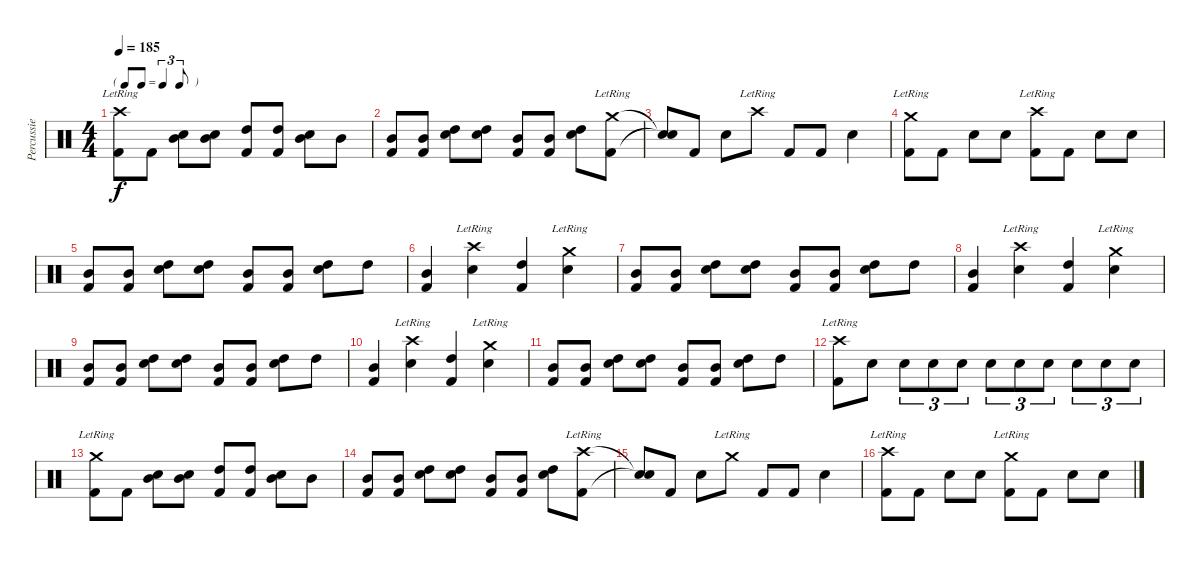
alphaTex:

\track ("Percussie" "Percussie") {instrument percussion}
\staff {score}
\articulation defaults
\ts (4 4)
\tf triplet8th
\tempo 185
\clef neutral
\ks c
("Crash high (hit)"{lr} "Kick (hit) 2").8{dy f} "Kick (hit) 2".8 ("Mid Tom (hit)" "Snare (hit) 2").8 ("Mid Tom (hit)" "Snare (hit) 2").8 ("High Tom (hit)" "Kick (hit) 2").8 ("High Tom (hit)" "Kick (hit) 2").8 ("Mid Tom (hit)" "Snare (hit) 2").8 "Mid Tom (hit)".8 |
("Mid Tom (hit)" "Kick (hit) 2").8 ("Mid Tom (hit)" "Kick (hit) 2").8 ("High Tom (hit)" "Snare (hit) 2").8 ("High Tom (hit)" "Snare (hit) 2").8 ("Mid Tom (hit)" "Kick (hit) 2").8 ("Mid Tom (hit)" "Kick (hit) 2").8 ("High Tom (hit)" "Snare (hit) 2").8 ("Crash medium (hit)"{lr} "Kick (hit) 2").8 |
("Snare (hit)"{t} "Snare (hit)"{t}).8 "Kick (hit) 2".8 "Snare (hit) 2".8 "Crash high (hit)"{lr}.8 "Kick (hit) 2".8 "Kick (hit) 2".8 "Snare (hit) 2".4 |
("Crash medium (hit)"{lr} "Kick (hit) 2").8 "Kick (hit) 2".8 "Snare (hit) 2".8 "Snare (hit) 2".8 ("Crash high (hit)"{lr} "Kick (hit) 2").8 "Kick (hit) 2".8 "Snare (hit) 2".8 "Snare (hit) 2".8 |
("Mid Tom (hit)" "Kick (hit) 2").8 ("Mid Tom (hit)" "Kick (hit) 2").8 ("High Tom (hit)" "Snare (hit) 2").8 ("High Tom (hit)" "Snare (hit) 2").8 ("Mid Tom (hit)" "Kick (hit) 2").8 ("Mid Tom (hit)" "Kick (hit) 2").8 ("High Tom (hit)" "Snare (hit) 2").8 "High Tom (hit)".8 |
("Mid Tom (hit)" "Kick (hit) 2").4 ("Crash high (hit)"{lr} "Snare (hit) 2").4 ("High Tom (hit)" "Kick (hit) 2").4 ("Crash medium (hit)"{lr} "Snare (hit) 2").4 |
("Mid Tom (hit)" "Kick (hit) 2").8 ("Mid Tom (hit)" "Kick (hit) 2").8 ("High Tom (hit)" "Snare (hit) 2").8 ("High Tom (hit)" "Snare (hit) 2").8 ("Mid Tom (hit)" "Kick (hit) 2").8 ("Mid Tom (hit)" "Kick (hit) 2").8 ("High Tom (hit)" "Snare (hit) 2").8 "High Tom (hit)".8 |
("Mid Tom (hit)" "Kick (hit) 2").4 ("Crash high (hit)"{lr} "Snare (hit) 2").4 ("High Tom (hit)" "Kick (hit) 2").4 ("Crash medium (hit)"{lr} "Snare (hit) 2").4 |
("Mid Tom (hit)" "Kick (hit) 2").8 ("Mid Tom (hit)" "Kick (hit) 2").8 ("High Tom (hit)" "Snare (hit) 2").8 ("High Tom (hit)" "Snare (hit) 2").8 ("Mid Tom (hit)" "Kick (hit) 2").8 ("Mid Tom (hit)" "Kick (hit) 2").8 ("High Tom (hit)" "Snare (hit) 2").8 "High Tom (hit)".8 |
("Mid Tom (hit)" "Kick (hit) 2").4 ("Crash high (hit)"{lr} "Snare (hit) 2").4 ("High Tom (hit)" "Kick (hit) 2").4 ("Crash medium (hit)"{lr} "Snare (hit) 2").4 |
("Mid Tom (hit)" "Kick (hit) 2").8 ("Mid Tom (hit)" "Kick (hit) 2").8 ("High Tom (hit)" "Snare (hit) 2").8 ("High Tom (hit)" "Snare (hit) 2").8 ("Mid Tom (hit)" "Kick (hit) 2").8 ("Mid Tom (hit)" "Kick (hit) 2").8 ("High Tom (hit)" "Snare (hit) 2").8 "High Tom (hit)".8 |
("Crash high (hit)"{lr} "Kick (hit) 2").8 "Snare (hit) 2".8 "Snare (hit) 2".8{tu (3 2)} "Snare (hit) 2".8{tu (3 2)} "Snare (hit) 2".8{tu (3 2)} "Snare (hit) 2".8{tu (3 2)} "Snare (hit) 2".8{tu (3 2)} "Snare (hit) 2".8{tu (3 2)} "Snare (hit) 2".8{tu (3 2)} "Snare (hit) 2".8{tu (3 2)} "Snare (hit) 2".8{tu (3 2)} |
("Crash medium (hit)"{lr} "Kick (hit) 2").8 "Kick (hit) 2".8 ("Mid Tom (hit)" "Snare (hit) 2").8 ("Mid Tom (hit)" "Snare (hit) 2").8 ("High Tom (hit)" "Kick (hit) 2").8 ("High Tom (hit)" "Kick (hit) 2").8 ("Mid Tom (hit)" "Snare (hit) 2").8 "Mid Tom (hit)".8 |
("Mid Tom (hit)" "Kick (hit) 2").8 ("Mid Tom (hit)" "Kick (hit) 2").8 ("High Tom (hit)" "Snare (hit) 2").8 ("High Tom (hit)" "Snare (hit) 2").8 ("Mid Tom (hit)" "Kick (hit) 2").8 ("Mid Tom (hit)" "Kick (hit) 2").8 ("High Tom (hit)" "Snare (hit) 2").8 ("Crash high (hit)"{lr} "Kick (hit) 2").8 |
("Snare (hit)"{t} "Snare (hit)"{t}).8 "Kick (hit) 2".8 "Snare (hit) 2".8 "Crash medium (hit)"{lr}.8 "Kick (hit) 2".8 "Kick (hit) 2".8 "Snare (hit) 2".4 |
("Crash high (hit)"{lr} "Kick (hit) 2").8 "Kick (hit) 2".8 "Snare (hit) 2".8 "Snare (hit) 2".8 ("Crash medium (hit)"{lr} "Kick (hit) 2").8 "Kick (hit) 2".8 "Snare (hit) 2".8 "Snare (hit) 2".8
